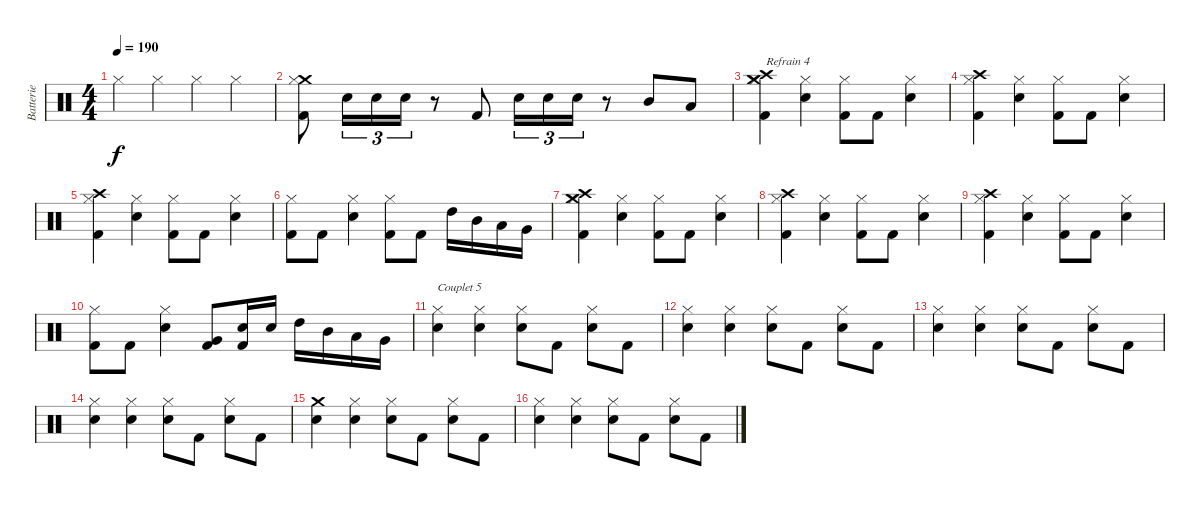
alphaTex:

\track ("Batterie" "Batterie") {instrument percussion}
\staff {score}
\articulation defaults
\ts (4 4)
\tempo 190
\clef neutral
\ks c "Hi-Hat (closed)".4{dy f} "Hi-Hat (closed)".4 "Hi-Hat (closed)".4 "Hi-Hat (closed)".4
|
("Crash medium (hit)" "Hi-Hat (closed)" "Kick (hit) 2").8 "Electric Snare (hit)".16{tu (3 2)} "Electric Snare (hit)".16{tu (3 2)} "Electric Snare (hit)".16{tu (3 2)} r.8 "Kick (hit) 2".8 "Electric Snare (hit)".16{tu (3 2)} "Electric Snare (hit)".16{tu (3 2)} "Electric Snare (hit)".16{tu (3 2)} r.8 "Mid Tom (hit)".8 "Low Tom (hit)".8 |
("Crash medium (hit)" "Crash high (hit)" "Hi-Hat (closed)" "Kick (hit) 2").4{txt "Refrain 4"} ("Electric Snare (hit)" "Hi-Hat (closed)").4 ("Hi-Hat (closed)" "Kick (hit) 2").8 "Kick (hit) 2".8 ("Electric Snare (hit)" "Hi-Hat (closed)").4 |
("Crash high (hit)" "Hi-Hat (closed)" "Kick (hit) 2").4 ("Electric Snare (hit)" "Hi-Hat (closed)").4 ("Hi-Hat (closed)" "Kick (hit) 2").8 "Kick (hit) 2".8 ("Electric Snare (hit)" "Hi-Hat (closed)").4 |
("Crash high (hit)" "Hi-Hat (closed)" "Kick (hit) 2").4 ("Electric Snare (hit)" "Hi-Hat (closed)").4 ("Hi-Hat (closed)" "Kick (hit) 2").8 "Kick (hit) 2".8 ("Electric Snare (hit)" "Hi-Hat (closed)").4 |
("Hi-Hat (closed)" "Kick (hit) 2").8 "Kick (hit) 2".8 ("Electric Snare (hit)" "Hi-Hat (closed)").4 ("Hi-Hat (closed)" "Kick (hit) 2").8 "Kick (hit) 2".8 "High Tom (hit)".16 "Mid Tom (hit)".16 "Low Tom (hit)".16 "Very Low Tom (hit)".16 |
("Crash medium (hit)" "Crash high (hit)" "Hi-Hat (closed)" "Kick (hit) 2").4 ("Electric Snare (hit)" "Hi-Hat (closed)").4 ("Hi-Hat (closed)" "Kick (hit) 2").8 "Kick (hit) 2".8 ("Electric Snare (hit)" "Hi-Hat (closed)").4 |
("Crash high (hit)" "Hi-Hat (closed)" "Kick (hit) 2").4 ("Electric Snare (hit)" "Hi-Hat (closed)").4 ("Hi-Hat (closed)" "Kick (hit) 2").8 "Kick (hit) 2".8 ("Electric Snare (hit)" "Hi-Hat (closed)").4 |
("Crash high (hit)" "Hi-Hat (closed)" "Kick (hit) 2").4 ("Electric Snare (hit)" "Hi-Hat (closed)").4 ("Hi-Hat (closed)" "Kick (hit) 2").8 "Kick (hit) 2".8 ("Electric Snare (hit)" "Hi-Hat (closed)").4 |
("Hi-Hat (closed)" "Kick (hit) 2").8 "Kick (hit) 2".8 ("Electric Snare (hit)" "Hi-Hat (closed)").4 ("Very Low Tom (hit)" "Kick (hit) 2").8 ("Electric Snare (hit)" "Kick (hit) 2").16 "Electric Snare (hit)".16 "High Tom (hit)".16 "Mid Tom (hit)".16 "Low Tom (hit)".16 "Very Low Tom (hit)".16 |
("Electric Snare (hit)" "Hi-Hat (closed)").4{txt "Couplet 5"} ("Electric Snare (hit)" "Hi-Hat (closed)").4 ("Electric Snare (hit)" "Hi-Hat (closed)").8 "Kick (hit) 2".8 ("Electric Snare (hit)" "Hi-Hat (closed)").8 "Kick (hit) 2".8 |
("Electric Snare (hit)" "Hi-Hat (closed)").4 ("Electric Snare (hit)" "Hi-Hat (closed)").4 ("Electric Snare (hit)" "Hi-Hat (closed)").8 "Kick (hit) 2".8 ("Electric Snare (hit)" "Hi-Hat (closed)").8 "Kick (hit) 2".8 |
("Electric Snare (hit)" "Hi-Hat (closed)").4 ("Electric Snare (hit)" "Hi-Hat (closed)").4 ("Electric Snare (hit)" "Hi-Hat (closed)").8 "Kick (hit) 2".8 ("Electric Snare (hit)" "Hi-Hat (closed)").8 "Kick (hit) 2".8 |
("Electric Snare (hit)" "Hi-Hat (closed)").4 ("Electric Snare (hit)" "Hi-Hat (closed)").4 ("Electric Snare (hit)" "Hi-Hat (closed)").8 "Kick (hit) 2".8 ("Electric Snare (hit)" "Hi-Hat (closed)").8 "Kick (hit) 2".8 |
("Crash medium (hit)" "Electric Snare (hit)").4 ("Electric Snare (hit)" "Hi-Hat (closed)").4 ("Electric Snare (hit)" "Hi-Hat (closed)").8 "Kick (hit) 2".8 ("Electric Snare (hit)" "Hi-Hat (closed)").8 "Kick (hit) 2".8 |
("Electric Snare (hit)" "Hi-Hat (closed)").4 ("Electric Snare (hit)" "Hi-Hat (closed)").4 ("Electric Snare (hit)" "Hi-Hat (closed)").8 "Kick (hit) 2".8 ("Electric Snare (hit)" "Hi-Hat (closed)").8 "Kick (hit) 2".8
